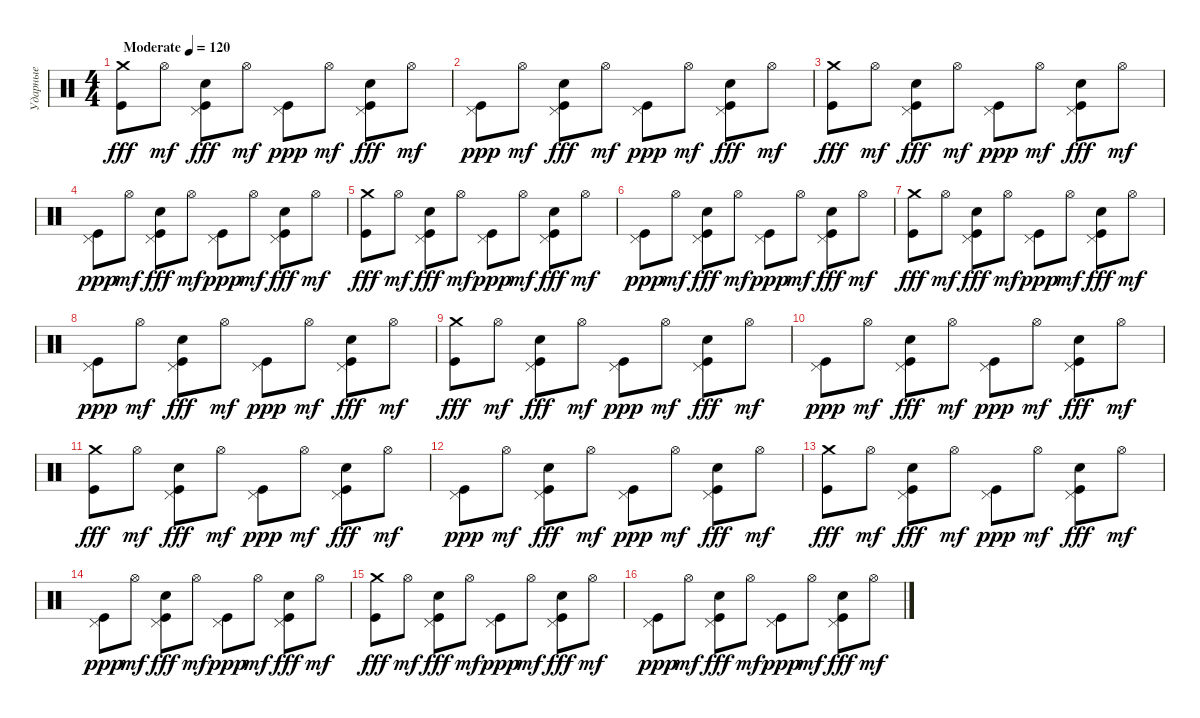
\track ("Ударные" "Ударные") {instrument percussion}
\staff {score}
\articulation defaults
\ts (4 4)
\tempo (120 "Moderate")
\clef neutral
\ks c
("Kick (hit)" "Crash medium (hit)").8{dy fff} "Hi-Hat (open)".8{dy mf} ("Kick (hit)" "Pedal Hi-Hat (hit)" "Electric Snare (hit)").8{dy fff} "Hi-Hat (open)".8{dy mf} ("Kick (hit)" "Pedal Hi-Hat (hit)").8{dy ppp} "Hi-Hat (open)".8{dy mf} ("Kick (hit)" "Pedal Hi-Hat (hit)" "Electric Snare (hit)").8{dy fff} "Hi-Hat (open)".8{dy mf} |
("Kick (hit)" "Pedal Hi-Hat (hit)").8{dy ppp} "Hi-Hat (open)".8{dy mf} ("Kick (hit)" "Pedal Hi-Hat (hit)" "Electric Snare (hit)").8{dy fff} "Hi-Hat (open)".8{dy mf} ("Kick (hit)" "Pedal Hi-Hat (hit)").8{dy ppp} "Hi-Hat (open)".8{dy mf} ("Kick (hit)" "Pedal Hi-Hat (hit)" "Electric Snare (hit)").8{dy fff} "Hi-Hat (open)".8{dy mf} |
("Kick (hit)" "Crash medium (hit)").8{dy fff} "Hi-Hat (open)".8{dy mf} ("Kick (hit)" "Pedal Hi-Hat (hit)" "Electric Snare (hit)").8{dy fff} "Hi-Hat (open)".8{dy mf} ("Kick (hit)" "Pedal Hi-Hat (hit)").8{dy ppp} "Hi-Hat (open)".8{dy mf} ("Kick (hit)" "Pedal Hi-Hat (hit)" "Electric Snare (hit)").8{dy fff} "Hi-Hat (open)".8{dy mf} |
("Kick (hit)" "Pedal Hi-Hat (hit)").8{dy ppp} "Hi-Hat (open)".8{dy mf} ("Kick (hit)" "Pedal Hi-Hat (hit)" "Electric Snare (hit)").8{dy fff} "Hi-Hat (open)".8{dy mf} ("Kick (hit)" "Pedal Hi-Hat (hit)").8{dy ppp} "Hi-Hat (open)".8{dy mf} ("Kick (hit)" "Pedal Hi-Hat (hit)" "Electric Snare (hit)").8{dy fff} "Hi-Hat (open)".8{dy mf} |
("Kick (hit)" "Crash medium (hit)").8{dy fff} "Hi-Hat (open)".8{dy mf} ("Kick (hit)" "Pedal Hi-Hat (hit)" "Electric Snare (hit)").8{dy fff} "Hi-Hat (open)".8{dy mf} ("Kick (hit)" "Pedal Hi-Hat (hit)").8{dy ppp} "Hi-Hat (open)".8{dy mf} ("Kick (hit)" "Pedal Hi-Hat (hit)" "Electric Snare (hit)").8{dy fff} "Hi-Hat (open)".8{dy mf} |
("Kick (hit)" "Pedal Hi-Hat (hit)").8{dy ppp} "Hi-Hat (open)".8{dy mf} ("Kick (hit)" "Pedal Hi-Hat (hit)" "Electric Snare (hit)").8{dy fff} "Hi-Hat (open)".8{dy mf} ("Kick (hit)" "Pedal Hi-Hat (hit)").8{dy ppp} "Hi-Hat (open)".8{dy mf} ("Kick (hit)" "Pedal Hi-Hat (hit)" "Electric Snare (hit)").8{dy fff} "Hi-Hat (open)".8{dy mf} |
("Kick (hit)" "Crash medium (hit)").8{dy fff} "Hi-Hat (open)".8{dy mf} ("Kick (hit)" "Pedal Hi-Hat (hit)" "Electric Snare (hit)").8{dy fff} "Hi-Hat (open)".8{dy mf} ("Kick (hit)" "Pedal Hi-Hat (hit)").8{dy ppp} "Hi-Hat (open)".8{dy mf} ("Kick (hit)" "Pedal Hi-Hat (hit)" "Electric Snare (hit)").8{dy fff} "Hi-Hat (open)".8{dy mf} |
("Kick (hit)" "Pedal Hi-Hat (hit)").8{dy ppp} "Hi-Hat (open)".8{dy mf} ("Kick (hit)" "Pedal Hi-Hat (hit)" "Electric Snare (hit)").8{dy fff} "Hi-Hat (open)".8{dy mf} ("Kick (hit)" "Pedal Hi-Hat (hit)").8{dy ppp} "Hi-Hat (open)".8{dy mf} ("Kick (hit)" "Pedal Hi-Hat (hit)" "Electric Snare (hit)").8{dy fff} "Hi-Hat (open)".8{dy mf} |
("Kick (hit)" "Crash medium (hit)").8{dy fff} "Hi-Hat (open)".8{dy mf} ("Kick (hit)" "Pedal Hi-Hat (hit)" "Electric Snare (hit)").8{dy fff} "Hi-Hat (open)".8{dy mf} ("Kick (hit)" "Pedal Hi-Hat (hit)").8{dy ppp} "Hi-Hat (open)".8{dy mf} ("Kick (hit)" "Pedal Hi-Hat (hit)" "Electric Snare (hit)").8{dy fff} "Hi-Hat (open)".8{dy mf} |
("Kick (hit)" "Pedal Hi-Hat (hit)").8{dy ppp} "Hi-Hat (open)".8{dy mf} ("Kick (hit)" "Pedal Hi-Hat (hit)" "Electric Snare (hit)").8{dy fff} "Hi-Hat (open)".8{dy mf} ("Kick (hit)" "Pedal Hi-Hat (hit)").8{dy ppp} "Hi-Hat (open)".8{dy mf} ("Kick (hit)" "Pedal Hi-Hat (hit)" "Electric Snare (hit)").8{dy fff} "Hi-Hat (open)".8{dy mf} |
("Kick (hit)" "Crash medium (hit)").8{dy fff} "Hi-Hat (open)".8{dy mf} ("Kick (hit)" "Pedal Hi-Hat (hit)" "Electric Snare (hit)").8{dy fff} "Hi-Hat (open)".8{dy mf} ("Kick (hit)" "Pedal Hi-Hat (hit)").8{dy ppp} "Hi-Hat (open)".8{dy mf} ("Kick (hit)" "Pedal Hi-Hat (hit)" "Electric Snare (hit)").8{dy fff} "Hi-Hat (open)".8{dy mf} |
("Kick (hit)" "Pedal Hi-Hat (hit)").8{dy ppp} "Hi-Hat (open)".8{dy mf} ("Kick (hit)" "Pedal Hi-Hat (hit)" "Electric Snare (hit)").8{dy fff} "Hi-Hat (open)".8{dy mf} ("Kick (hit)" "Pedal Hi-Hat (hit)").8{dy ppp} "Hi-Hat (open)".8{dy mf} ("Kick (hit)" "Pedal Hi-Hat (hit)" "Electric Snare (hit)").8{dy fff} "Hi-Hat (open)".8{dy mf} |
("Kick (hit)" "Crash medium (hit)").8{dy fff} "Hi-Hat (open)".8{dy mf} ("Kick (hit)" "Pedal Hi-Hat (hit)" "Electric Snare (hit)").8{dy fff} "Hi-Hat (open)".8{dy mf} ("Kick (hit)" "Pedal Hi-Hat (hit)").8{dy ppp} "Hi-Hat (open)".8{dy mf} ("Kick (hit)" "Pedal Hi-Hat (hit)" "Electric Snare (hit)").8{dy fff} "Hi-Hat (open)".8{dy mf} |
("Kick (hit)" "Pedal Hi-Hat (hit)").8{dy ppp} "Hi-Hat (open)".8{dy mf} ("Kick (hit)" "Pedal Hi-Hat (hit)" "Electric Snare (hit)").8{dy fff} "Hi-Hat (open)".8{dy mf} ("Kick (hit)" "Pedal Hi-Hat (hit)").8{dy ppp} "Hi-Hat (open)".8{dy mf} ("Kick (hit)" "Pedal Hi-Hat (hit)" "Electric Snare (hit)").8{dy fff} "Hi-Hat (open)".8{dy mf} |
("Kick (hit)" "Crash medium (hit)").8{dy fff} "Hi-Hat (open)".8{dy mf} ("Kick (hit)" "Pedal Hi-Hat (hit)" "Electric Snare (hit)").8{dy fff} "Hi-Hat (open)".8{dy mf} ("Kick (hit)" "Pedal Hi-Hat (hit)").8{dy ppp} "Hi-Hat (open)".8{dy mf} ("Kick (hit)" "Pedal Hi-Hat (hit)" "Electric Snare (hit)").8{dy fff} "Hi-Hat (open)".8{dy mf} |
("Kick (hit)" "Pedal Hi-Hat (hit)").8{dy ppp} "Hi-Hat (open)".8{dy mf} ("Kick (hit)" "Pedal Hi-Hat (hit)" "Electric Snare (hit)").8{dy fff} "Hi-Hat (open)".8{dy mf} ("Kick (hit)" "Pedal Hi-Hat (hit)").8{dy ppp} "Hi-Hat (open)".8{dy mf} ("Kick (hit)" "Pedal Hi-Hat (hit)" "Electric Snare (hit)").8{dy fff} "Hi-Hat (open)".8{dy mf}
